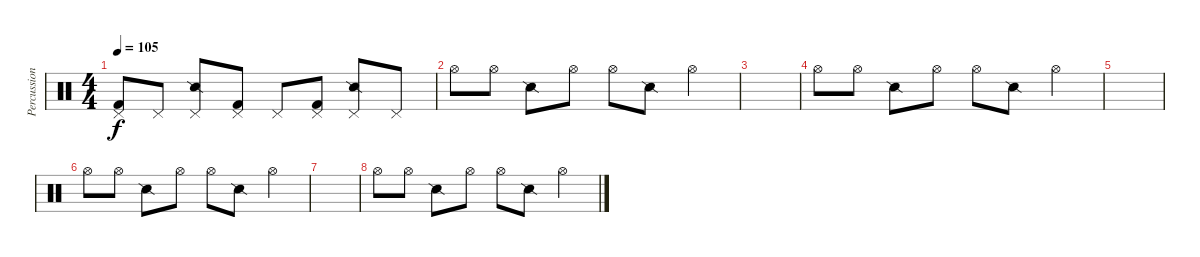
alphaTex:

\track ("Percussion" "Percussion") {instrument percussion}
\staff {score}
\articulation defaults
\ts (4 4)
\tempo 105
\clef neutral
\ks c
("Pedal Hi-Hat (hit)" "Kick (hit) 2").8{dy f} "Pedal Hi-Hat (hit)".8 ("Pedal Hi-Hat (hit)" "Snare (side stick) 2").8 ("Pedal Hi-Hat (hit)" "Kick (hit) 2").8 "Pedal Hi-Hat (hit)".8 ("Pedal Hi-Hat (hit)" "Kick (hit) 2").8 ("Pedal Hi-Hat (hit)" "Snare (side stick) 2").8 "Pedal Hi-Hat (hit)".8 |
"Hi-Hat (open)".8 "Hi-Hat (open)".8 "Snare (side stick) 2".8 "Hi-Hat (open)".8 "Hi-Hat (open)".8 "Snare (side stick) 2".8 "Hi-Hat (open)".4 |
|
"Hi-Hat (open)".8 "Hi-Hat (open)".8 "Snare (side stick) 2".8 "Hi-Hat (open)".8 "Hi-Hat (open)".8 "Snare (side stick) 2".8 "Hi-Hat (open)".4 |
|
"Hi-Hat (open)".8 "Hi-Hat (open)".8 "Snare (side stick) 2".8 "Hi-Hat (open)".8 "Hi-Hat (open)".8 "Snare (side stick) 2".8 "Hi-Hat (open)".4 |
|
"Hi-Hat (open)".8 "Hi-Hat (open)".8 "Snare (side stick) 2".8 "Hi-Hat (open)".8 "Hi-Hat (open)".8 "Snare (side stick) 2".8 "Hi-Hat (open)".4
